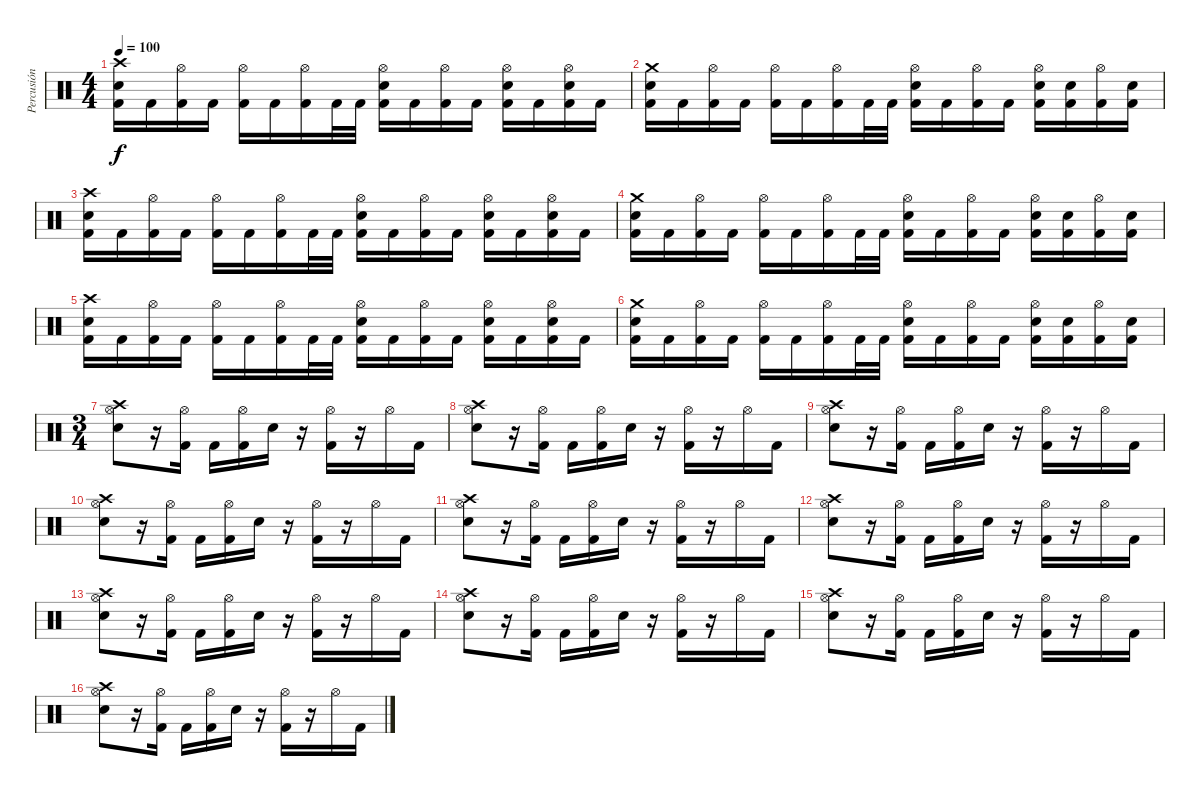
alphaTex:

\track ("Percusión" "Percusión") {instrument percussion}
\staff {score}
\articulation defaults
\ts (4 4)
\tempo 100
\clef neutral
\ks c
("Crash high (hit)" "Electric Snare (hit)" "Kick (hit) 2").16{dy f} "Kick (hit) 2".16 ("Hi-Hat (open)" "Kick (hit) 2").16 "Kick (hit) 2".16 ("Hi-Hat (open)" "Kick (hit) 2").16 "Kick (hit) 2".16 ("Hi-Hat (open)" "Kick (hit) 2").16 "Kick (hit) 2".32 "Kick (hit) 2".32 ("Hi-Hat (open)" "Electric Snare (hit)" "Kick (hit) 2").16 "Kick (hit) 2".16 ("Hi-Hat (open)" "Kick (hit) 2").16 "Kick (hit) 2".16 ("Hi-Hat (open)" "Electric Snare (hit)" "Kick (hit) 2").16 "Kick (hit) 2".16 ("Hi-Hat (open)" "Electric Snare (hit)" "Kick (hit) 2").16 "Kick (hit) 2".16 |
("Crash medium (hit)" "Electric Snare (hit)" "Kick (hit) 2").16 "Kick (hit) 2".16 ("Hi-Hat (open)" "Kick (hit) 2").16 "Kick (hit) 2".16 ("Hi-Hat (open)" "Kick (hit) 2").16 "Kick (hit) 2".16 ("Hi-Hat (open)" "Kick (hit) 2").16 "Kick (hit) 2".32 "Kick (hit) 2".32 ("Hi-Hat (open)" "Electric Snare (hit)" "Kick (hit) 2").16 "Kick (hit) 2".16 ("Hi-Hat (open)" "Kick (hit) 2").16 "Kick (hit) 2".16 ("Hi-Hat (open)" "Electric Snare (hit)" "Kick (hit) 2").16 ("Electric Snare (hit)" "Kick (hit) 2").16 ("Hi-Hat (open)" "Kick (hit) 2").16 ("Electric Snare (hit)" "Kick (hit) 2").16 |
("Crash high (hit)" "Electric Snare (hit)" "Kick (hit) 2").16 "Kick (hit) 2".16 ("Hi-Hat (open)" "Kick (hit) 2").16 "Kick (hit) 2".16 ("Hi-Hat (open)" "Kick (hit) 2").16 "Kick (hit) 2".16 ("Hi-Hat (open)" "Kick (hit) 2").16 "Kick (hit) 2".32 "Kick (hit) 2".32 ("Hi-Hat (open)" "Electric Snare (hit)" "Kick (hit) 2").16 "Kick (hit) 2".16 ("Hi-Hat (open)" "Kick (hit) 2").16 "Kick (hit) 2".16 ("Hi-Hat (open)" "Electric Snare (hit)" "Kick (hit) 2").16 "Kick (hit) 2".16 ("Hi-Hat (open)" "Electric Snare (hit)" "Kick (hit) 2").16 "Kick (hit) 2".16 |
("Crash medium (hit)" "Electric Snare (hit)" "Kick (hit) 2").16 "Kick (hit) 2".16 ("Hi-Hat (open)" "Kick (hit) 2").16 "Kick (hit) 2".16 ("Hi-Hat (open)" "Kick (hit) 2").16 "Kick (hit) 2".16 ("Hi-Hat (open)" "Kick (hit) 2").16 "Kick (hit) 2".32 "Kick (hit) 2".32 ("Hi-Hat (open)" "Electric Snare (hit)" "Kick (hit) 2").16 "Kick (hit) 2".16 ("Hi-Hat (open)" "Kick (hit) 2").16 "Kick (hit) 2".16 ("Hi-Hat (open)" "Electric Snare (hit)" "Kick (hit) 2").16 ("Electric Snare (hit)" "Kick (hit) 2").16 ("Hi-Hat (open)" "Kick (hit) 2").16 ("Electric Snare (hit)" "Kick (hit) 2").16 |
("Crash high (hit)" "Electric Snare (hit)" "Kick (hit) 2").16 "Kick (hit) 2".16 ("Hi-Hat (open)" "Kick (hit) 2").16 "Kick (hit) 2".16 ("Hi-Hat (open)" "Kick (hit) 2").16 "Kick (hit) 2".16 ("Hi-Hat (open)" "Kick (hit) 2").16 "Kick (hit) 2".32 "Kick (hit) 2".32 ("Hi-Hat (open)" "Electric Snare (hit)" "Kick (hit) 2").16 "Kick (hit) 2".16 ("Hi-Hat (open)" "Kick (hit) 2").16 "Kick (hit) 2".16 ("Hi-Hat (open)" "Electric Snare (hit)" "Kick (hit) 2").16 "Kick (hit) 2".16 ("Hi-Hat (open)" "Electric Snare (hit)" "Kick (hit) 2").16 "Kick (hit) 2".16 |
("Crash medium (hit)" "Electric Snare (hit)" "Kick (hit) 2").16 "Kick (hit) 2".16 ("Hi-Hat (open)" "Kick (hit) 2").16 "Kick (hit) 2".16 ("Hi-Hat (open)" "Kick (hit) 2").16 "Kick (hit) 2".16 ("Hi-Hat (open)" "Kick (hit) 2").16 "Kick (hit) 2".32 "Kick (hit) 2".32 ("Hi-Hat (open)" "Electric Snare (hit)" "Kick (hit) 2").16 "Kick (hit) 2".16 ("Hi-Hat (open)" "Kick (hit) 2").16 "Kick (hit) 2".16 ("Hi-Hat (open)" "Electric Snare (hit)" "Kick (hit) 2").16 ("Electric Snare (hit)" "Kick (hit) 2").16 ("Hi-Hat (open)" "Kick (hit) 2").16 ("Electric Snare (hit)" "Kick (hit) 2").16 |
\ts (3 4)
("Crash high (hit)" "Hi-Hat (open)" "Electric Snare (hit)").8 r.16 ("Hi-Hat (open)" "Kick (hit) 2").16 "Kick (hit) 2".16 ("Hi-Hat (open)" "Kick (hit) 2").16 "Electric Snare (hit)".16 r.16 ("Hi-Hat (open)" "Kick (hit) 2").16 r.16 "Hi-Hat (open)".16 "Kick (hit) 2".16 |
("Crash high (hit)" "Hi-Hat (open)" "Electric Snare (hit)").8 r.16 ("Hi-Hat (open)" "Kick (hit) 2").16 "Kick (hit) 2".16 ("Hi-Hat (open)" "Kick (hit) 2").16 "Electric Snare (hit)".16 r.16 ("Hi-Hat (open)" "Kick (hit) 2").16 r.16 "Hi-Hat (open)".16 "Kick (hit) 2".16 |
("Crash high (hit)" "Hi-Hat (open)" "Electric Snare (hit)").8 r.16 ("Hi-Hat (open)" "Kick (hit) 2").16 "Kick (hit) 2".16 ("Hi-Hat (open)" "Kick (hit) 2").16 "Electric Snare (hit)".16 r.16 ("Hi-Hat (open)" "Kick (hit) 2").16 r.16 "Hi-Hat (open)".16 "Kick (hit) 2".16 |
("Crash high (hit)" "Hi-Hat (open)" "Electric Snare (hit)").8 r.16 ("Hi-Hat (open)" "Kick (hit) 2").16 "Kick (hit) 2".16 ("Hi-Hat (open)" "Kick (hit) 2").16 "Electric Snare (hit)".16 r.16 ("Hi-Hat (open)" "Kick (hit) 2").16 r.16 "Hi-Hat (open)".16 "Kick (hit) 2".16 |
("Crash high (hit)" "Hi-Hat (open)" "Electric Snare (hit)").8 r.16 ("Hi-Hat (open)" "Kick (hit) 2").16 "Kick (hit) 2".16 ("Hi-Hat (open)" "Kick (hit) 2").16 "Electric Snare (hit)".16 r.16 ("Hi-Hat (open)" "Kick (hit) 2").16 r.16 "Hi-Hat (open)".16 "Kick (hit) 2".16 |
("Crash high (hit)" "Hi-Hat (open)" "Electric Snare (hit)").8 r.16 ("Hi-Hat (open)" "Kick (hit) 2").16 "Kick (hit) 2".16 ("Hi-Hat (open)" "Kick (hit) 2").16 "Electric Snare (hit)".16 r.16 ("Hi-Hat (open)" "Kick (hit) 2").16 r.16 "Hi-Hat (open)".16 "Kick (hit) 2".16 |
("Crash high (hit)" "Hi-Hat (open)" "Electric Snare (hit)").8 r.16 ("Hi-Hat (open)" "Kick (hit) 2").16 "Kick (hit) 2".16 ("Hi-Hat (open)" "Kick (hit) 2").16 "Electric Snare (hit)".16 r.16 ("Hi-Hat (open)" "Kick (hit) 2").16 r.16 "Hi-Hat (open)".16 "Kick (hit) 2".16 |
("Crash high (hit)" "Hi-Hat (open)" "Electric Snare (hit)").8 r.16 ("Hi-Hat (open)" "Kick (hit) 2").16 "Kick (hit) 2".16 ("Hi-Hat (open)" "Kick (hit) 2").16 "Electric Snare (hit)".16 r.16 ("Hi-Hat (open)" "Kick (hit) 2").16 r.16 "Hi-Hat (open)".16 "Kick (hit) 2".16 |
("Crash high (hit)" "Hi-Hat (open)" "Electric Snare (hit)").8 r.16 ("Hi-Hat (open)" "Kick (hit) 2").16 "Kick (hit) 2".16 ("Hi-Hat (open)" "Kick (hit) 2").16 "Electric Snare (hit)".16 r.16 ("Hi-Hat (open)" "Kick (hit) 2").16 r.16 "Hi-Hat (open)".16 "Kick (hit) 2".16 |
("Crash high (hit)" "Hi-Hat (open)" "Electric Snare (hit)").8 r.16 ("Hi-Hat (open)" "Kick (hit) 2").16 "Kick (hit) 2".16 ("Hi-Hat (open)" "Kick (hit) 2").16 "Electric Snare (hit)".16 r.16 ("Hi-Hat (open)" "Kick (hit) 2").16 r.16 "Hi-Hat (open)".16 "Kick (hit) 2".16
